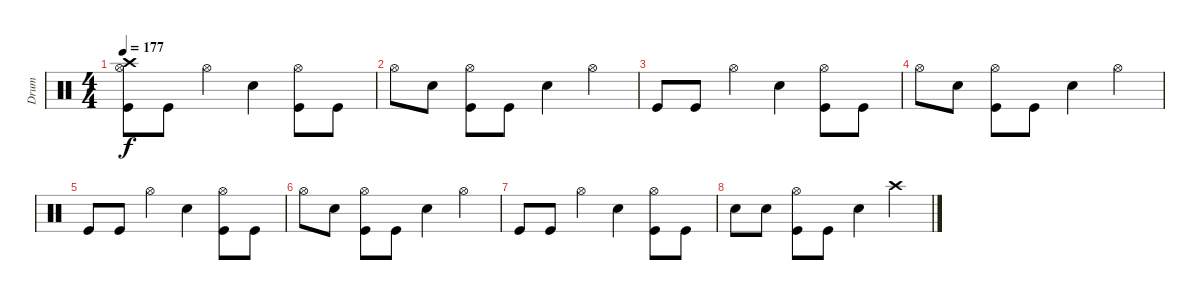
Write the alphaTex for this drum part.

\track ("Drum" "Drum") {instrument percussion}
\staff {score}
\articulation defaults
\ts (4 4)
\tempo 177
\clef neutral
\ks c
("Kick (hit)" "Hi-Hat (open)" "Crash high (hit)").8{dy f} "Kick (hit)".8 "Hi-Hat (open)".4 "Snare (hit) 2".4 ("Kick (hit)" "Hi-Hat (open)").8 "Kick (hit)".8 |
"Hi-Hat (open)".8 "Snare (hit) 2".8 ("Kick (hit)" "Hi-Hat (open)").8 "Kick (hit)".8 "Snare (hit) 2".4 "Hi-Hat (open)".4 |
"Kick (hit)".8 "Kick (hit)".8 "Hi-Hat (open)".4 "Snare (hit) 2".4 ("Kick (hit)" "Hi-Hat (open)").8 "Kick (hit)".8 |
"Hi-Hat (open)".8 "Snare (hit) 2".8 ("Kick (hit)" "Hi-Hat (open)").8 "Kick (hit)".8 "Snare (hit) 2".4 "Hi-Hat (open)".4 |
"Kick (hit)".8 "Kick (hit)".8 "Hi-Hat (open)".4 "Snare (hit) 2".4 ("Kick (hit)" "Hi-Hat (open)").8 "Kick (hit)".8 |
"Hi-Hat (open)".8 "Snare (hit) 2".8 ("Kick (hit)" "Hi-Hat (open)").8 "Kick (hit)".8 "Snare (hit) 2".4 "Hi-Hat (open)".4 |
"Kick (hit)".8 "Kick (hit)".8 "Hi-Hat (open)".4 "Snare (hit) 2".4 ("Kick (hit)" "Hi-Hat (open)").8 "Kick (hit)".8 |
"Snare (hit) 2".8 "Snare (hit) 2".8 ("Kick (hit)" "Hi-Hat (open)").8 "Kick (hit)".8 "Snare (hit) 2".4 "Crash high (hit)".4
